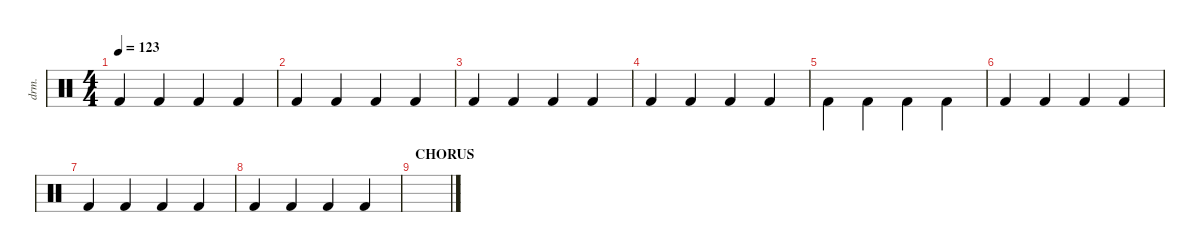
\defaultSystemsLayout 4
\hideDynamics
\bracketExtendMode nobrackets
\track ("Drumkit" "drm.") {instrument percussion}
\staff {score}
\articulation defaults
\ts (4 4)
\tempo 123
\clef neutral
\ks c "Kick (hit) 2".4{dy mf beam Up} "Kick (hit) 2".4{beam Up} "Kick (hit) 2".4{beam Up} "Kick (hit) 2".4{beam Up}
|
"Kick (hit) 2".4{beam Up} "Kick (hit) 2".4{beam Up} "Kick (hit) 2".4{beam Up} "Kick (hit) 2".4{beam Up} |
"Kick (hit) 2".4{beam Up} "Kick (hit) 2".4{beam Up} "Kick (hit) 2".4{beam Up} "Kick (hit) 2".4{beam Up} |
"Kick (hit) 2".4{beam Up} "Kick (hit) 2".4{beam Up} "Kick (hit) 2".4{beam Up} "Kick (hit) 2".4{beam Up} |
"Kick (hit) 2".4{beam Down} "Kick (hit) 2".4{beam Down} "Kick (hit) 2".4{beam Down} "Kick (hit) 2".4{beam Down} |
"Kick (hit) 2".4{beam Up} "Kick (hit) 2".4{beam Up} "Kick (hit) 2".4{beam Up} "Kick (hit) 2".4{beam Up} |
"Kick (hit) 2".4{beam Up} "Kick (hit) 2".4{beam Up} "Kick (hit) 2".4{beam Up} "Kick (hit) 2".4{beam Up} |
"Kick (hit) 2".4{beam Up} "Kick (hit) 2".4{beam Up} "Kick (hit) 2".4{beam Up} "Kick (hit) 2".4{beam Up} |
\section ("" "CHORUS")
